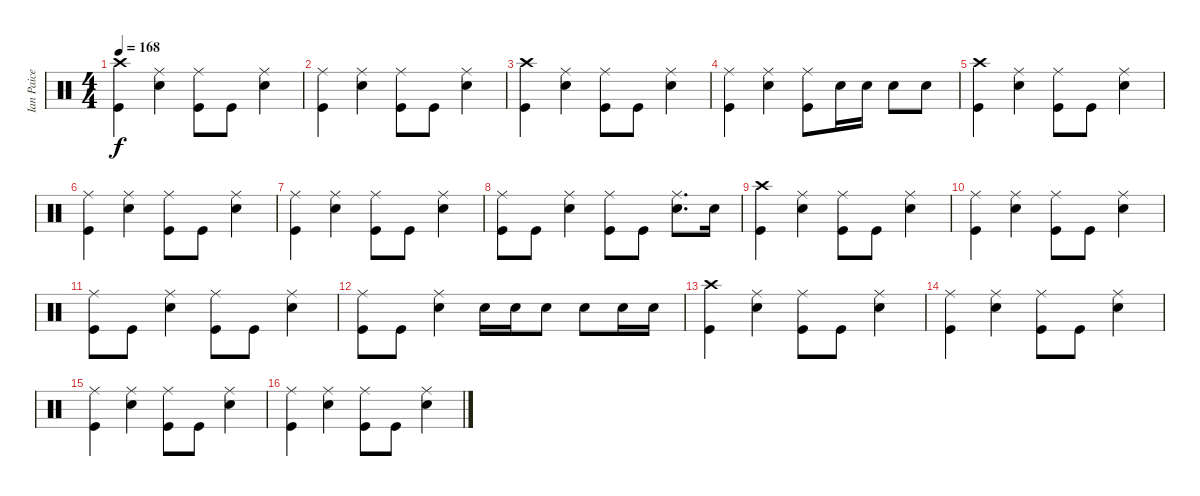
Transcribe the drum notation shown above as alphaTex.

\track ("Ian Paice" "Ian Paice") {instrument percussion}
\staff {score}
\articulation defaults
\ts (4 4)
\tempo 168
\clef neutral
\ks c
("Crash high (hit)" "Kick (hit)").4{dy f} ("Ride (middle)" "Snare (hit) 2").4 ("Ride (middle)" "Kick (hit)").8 "Kick (hit)".8 ("Ride (middle)" "Snare (hit) 2").4 |
("Kick (hit)" "Ride (middle)").4 ("Ride (middle)" "Snare (hit) 2").4 ("Ride (middle)" "Kick (hit)").8 "Kick (hit)".8 ("Ride (middle)" "Snare (hit) 2").4 |
("Crash high (hit)" "Kick (hit)").4 ("Ride (middle)" "Snare (hit) 2").4 ("Ride (middle)" "Kick (hit)").8 "Kick (hit)".8 ("Ride (middle)" "Snare (hit) 2").4 |
("Kick (hit)" "Ride (middle)").4 ("Ride (middle)" "Snare (hit) 2").4 ("Ride (middle)" "Kick (hit)").8 "Snare (hit) 2".16 "Snare (hit) 2".16 "Snare (hit) 2".8 "Snare (hit) 2".8 |
("Crash high (hit)" "Kick (hit)").4 ("Ride (middle)" "Snare (hit) 2").4 ("Ride (middle)" "Kick (hit)").8 "Kick (hit)".8 ("Ride (middle)" "Snare (hit) 2").4 |
("Kick (hit)" "Ride (middle)").4 ("Ride (middle)" "Snare (hit) 2").4 ("Ride (middle)" "Kick (hit)").8 "Kick (hit)".8 ("Ride (middle)" "Snare (hit) 2").4 |
("Kick (hit)" "Ride (middle)").4 ("Ride (middle)" "Snare (hit) 2").4 ("Ride (middle)" "Kick (hit)").8 "Kick (hit)".8 ("Ride (middle)" "Snare (hit) 2").4 |
("Kick (hit)" "Ride (middle)").8 "Kick (hit)".8 ("Ride (middle)" "Snare (hit) 2").4 ("Kick (hit)" "Ride (middle)").8 "Kick (hit)".8 ("Snare (hit) 2" "Ride (middle)").8{d} "Snare (hit) 2".16 |
("Crash high (hit)" "Kick (hit)").4 ("Ride (middle)" "Snare (hit) 2").4 ("Ride (middle)" "Kick (hit)").8 "Kick (hit)".8 ("Ride (middle)" "Snare (hit) 2").4 |
("Kick (hit)" "Ride (middle)").4 ("Ride (middle)" "Snare (hit) 2").4 ("Ride (middle)" "Kick (hit)").8 "Kick (hit)".8 ("Ride (middle)" "Snare (hit) 2").4 |
("Kick (hit)" "Ride (middle)").8 "Kick (hit)".8 ("Ride (middle)" "Snare (hit) 2").4 ("Kick (hit)" "Ride (middle)").8 "Kick (hit)".8 ("Snare (hit) 2" "Ride (middle)").4 |
("Kick (hit)" "Ride (middle)").8 "Kick (hit)".8 ("Ride (middle)" "Snare (hit) 2").4 "Snare (hit) 2".16 "Snare (hit) 2".16 "Snare (hit) 2".8 "Snare (hit) 2".8 "Snare (hit) 2".16 "Snare (hit) 2".16 |
("Crash high (hit)" "Kick (hit)").4 ("Ride (middle)" "Snare (hit) 2").4 ("Ride (middle)" "Kick (hit)").8 "Kick (hit)".8 ("Ride (middle)" "Snare (hit) 2").4 |
("Kick (hit)" "Ride (middle)").4 ("Ride (middle)" "Snare (hit) 2").4 ("Ride (middle)" "Kick (hit)").8 "Kick (hit)".8 ("Ride (middle)" "Snare (hit) 2").4 |
("Kick (hit)" "Ride (middle)").4 ("Ride (middle)" "Snare (hit) 2").4 ("Ride (middle)" "Kick (hit)").8 "Kick (hit)".8 ("Ride (middle)" "Snare (hit) 2").4 |
("Kick (hit)" "Ride (middle)").4 ("Ride (middle)" "Snare (hit) 2").4 ("Ride (middle)" "Kick (hit)").8 "Kick (hit)".8 ("Ride (middle)" "Snare (hit) 2").4
